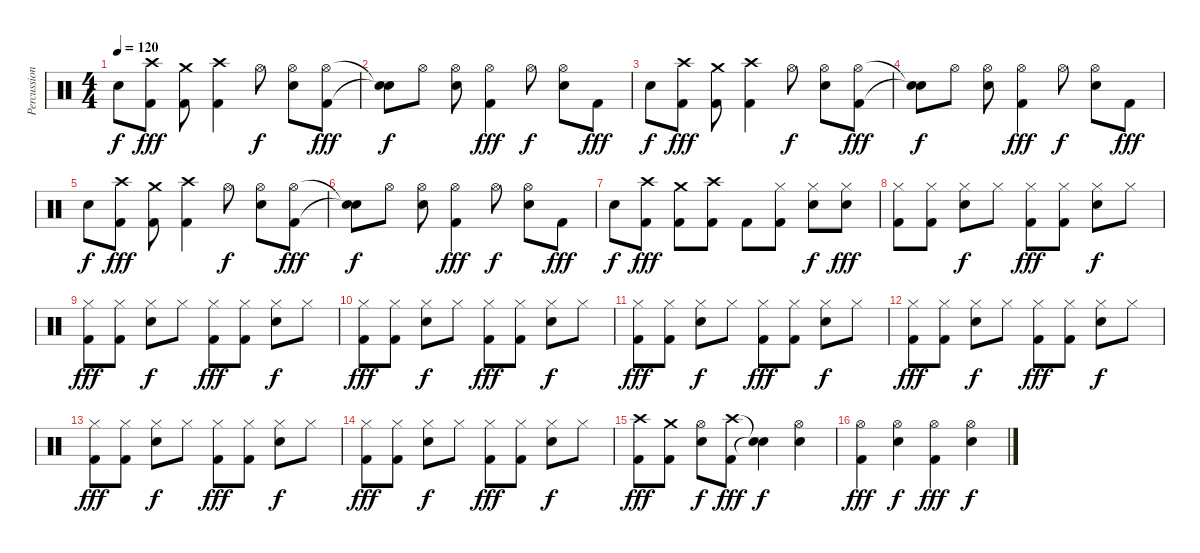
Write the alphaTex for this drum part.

\track ("Percussion" "Percussion") {instrument percussion}
\staff {score}
\articulation defaults
\ts (4 4)
\tempo 120
\clef neutral
\ks c "Snare (hit) 2".8{dy f}
("Crash high (hit)" "Kick (hit) 2").8{dy fff} ("Crash medium (hit)" "Kick (hit) 2").8 ("Crash high (hit)" "Kick (hit) 2").4 "Hi-Hat (open)".8{dy f} ("Hi-Hat (open)" "Snare (hit) 2").8 ("Hi-Hat (open)" "Kick (hit) 2").8{dy fff} |
("Snare (hit)"{t} "Snare (hit)"{t}).8{dy f} "Hi-Hat (open)".8 ("Hi-Hat (open)" "Snare (hit) 2").8 ("Hi-Hat (open)" "Kick (hit) 2").4{dy fff} "Hi-Hat (open)".8{dy f} ("Hi-Hat (open)" "Snare (hit) 2").8 "Kick (hit) 2".8{dy fff} |
"Snare (hit) 2".8{dy f} ("Crash high (hit)" "Kick (hit) 2").8{dy fff} ("Crash medium (hit)" "Kick (hit) 2").8 ("Crash high (hit)" "Kick (hit) 2").4 "Hi-Hat (open)".8{dy f} ("Hi-Hat (open)" "Snare (hit) 2").8 ("Hi-Hat (open)" "Kick (hit) 2").8{dy fff} |
("Snare (hit)"{t} "Snare (hit)"{t}).8{dy f} "Hi-Hat (open)".8 ("Hi-Hat (open)" "Snare (hit) 2").8 ("Hi-Hat (open)" "Kick (hit) 2").4{dy fff} "Hi-Hat (open)".8{dy f} ("Hi-Hat (open)" "Snare (hit) 2").8 "Kick (hit) 2".8{dy fff} |
"Snare (hit) 2".8{dy f} ("Crash high (hit)" "Kick (hit) 2").8{dy fff} ("Crash medium (hit)" "Kick (hit) 2").8 ("Crash high (hit)" "Kick (hit) 2").4 "Hi-Hat (open)".8{dy f} ("Hi-Hat (open)" "Snare (hit) 2").8 ("Hi-Hat (open)" "Kick (hit) 2").8{dy fff} |
("Snare (hit)"{t} "Snare (hit)"{t}).8{dy f} "Hi-Hat (open)".8 ("Hi-Hat (open)" "Snare (hit) 2").8 ("Hi-Hat (open)" "Kick (hit) 2").4{dy fff} "Hi-Hat (open)".8{dy f} ("Hi-Hat (open)" "Snare (hit) 2").8 "Kick (hit) 2".8{dy fff} |
"Snare (hit) 2".8{dy f} ("Crash high (hit)" "Kick (hit) 2").8{dy fff} ("Crash medium (hit)" "Kick (hit) 2").8 ("Crash high (hit)" "Kick (hit) 2").8 "Kick (hit) 2".8 ("Hi-Hat (closed)" "Kick (hit) 2").8 ("Hi-Hat (closed)" "Snare (hit) 2").8{dy f} ("Hi-Hat (closed)" "Snare (hit)").8{dy fff} |
("Hi-Hat (closed)" "Kick (hit) 2").8 ("Hi-Hat (closed)" "Kick (hit) 2").8 ("Hi-Hat (closed)" "Snare (hit) 2").8{dy f} "Hi-Hat (closed)".8 ("Hi-Hat (closed)" "Kick (hit) 2").8{dy fff} ("Hi-Hat (closed)" "Kick (hit) 2").8 ("Hi-Hat (closed)" "Snare (hit) 2").8{dy f} "Hi-Hat (closed)".8 |
("Hi-Hat (closed)" "Kick (hit) 2").8{dy fff} ("Hi-Hat (closed)" "Kick (hit) 2").8 ("Hi-Hat (closed)" "Snare (hit) 2").8{dy f} "Hi-Hat (closed)".8 ("Hi-Hat (closed)" "Kick (hit) 2").8{dy fff} ("Hi-Hat (closed)" "Kick (hit) 2").8 ("Hi-Hat (closed)" "Snare (hit) 2").8{dy f} "Hi-Hat (closed)".8 |
("Hi-Hat (closed)" "Kick (hit) 2").8{dy fff} ("Hi-Hat (closed)" "Kick (hit) 2").8 ("Hi-Hat (closed)" "Snare (hit) 2").8{dy f} "Hi-Hat (closed)".8 ("Hi-Hat (closed)" "Kick (hit) 2").8{dy fff} ("Hi-Hat (closed)" "Kick (hit) 2").8 ("Hi-Hat (closed)" "Snare (hit) 2").8{dy f} "Hi-Hat (closed)".8 |
("Hi-Hat (closed)" "Kick (hit) 2").8{dy fff} ("Hi-Hat (closed)" "Kick (hit) 2").8 ("Hi-Hat (closed)" "Snare (hit) 2").8{dy f} "Hi-Hat (closed)".8 ("Hi-Hat (closed)" "Kick (hit) 2").8{dy fff} ("Hi-Hat (closed)" "Kick (hit) 2").8 ("Hi-Hat (closed)" "Snare (hit) 2").8{dy f} "Hi-Hat (closed)".8 |
("Hi-Hat (closed)" "Kick (hit) 2").8{dy fff} ("Hi-Hat (closed)" "Kick (hit) 2").8 ("Hi-Hat (closed)" "Snare (hit) 2").8{dy f} "Hi-Hat (closed)".8 ("Hi-Hat (closed)" "Kick (hit) 2").8{dy fff} ("Hi-Hat (closed)" "Kick (hit) 2").8 ("Hi-Hat (closed)" "Snare (hit) 2").8{dy f} "Hi-Hat (closed)".8 |
("Hi-Hat (closed)" "Kick (hit) 2").8{dy fff} ("Hi-Hat (closed)" "Kick (hit) 2").8 ("Hi-Hat (closed)" "Snare (hit) 2").8{dy f} "Hi-Hat (closed)".8 ("Hi-Hat (closed)" "Kick (hit) 2").8{dy fff} ("Hi-Hat (closed)" "Kick (hit) 2").8 ("Hi-Hat (closed)" "Snare (hit) 2").8{dy f} "Hi-Hat (closed)".8 |
("Hi-Hat (closed)" "Kick (hit) 2").8{dy fff} ("Hi-Hat (closed)" "Kick (hit) 2").8 ("Hi-Hat (closed)" "Snare (hit) 2").8{dy f} "Hi-Hat (closed)".8 ("Hi-Hat (closed)" "Kick (hit) 2").8{dy fff} ("Hi-Hat (closed)" "Kick (hit) 2").8 ("Hi-Hat (closed)" "Snare (hit) 2").8{dy f} "Hi-Hat (closed)".8 |
("Crash high (hit)" "Kick (hit) 2").8{dy fff} ("Crash medium (hit)" "Kick (hit) 2").8 ("Hi-Hat (open)" "Snare (hit) 2").8{dy f} ("Crash high (hit)" "Kick (hit) 2").8{dy fff} ("Snare (hit)"{t} "Snare (hit)"{t}).4{dy f} ("Hi-Hat (open)" "Snare (hit) 2").4 |
("Hi-Hat (open)" "Kick (hit) 2").4{dy fff} ("Hi-Hat (open)" "Snare (hit) 2").4{dy f} ("Hi-Hat (open)" "Kick (hit) 2").4{dy fff} ("Hi-Hat (open)" "Snare (hit) 2").4{dy f}
